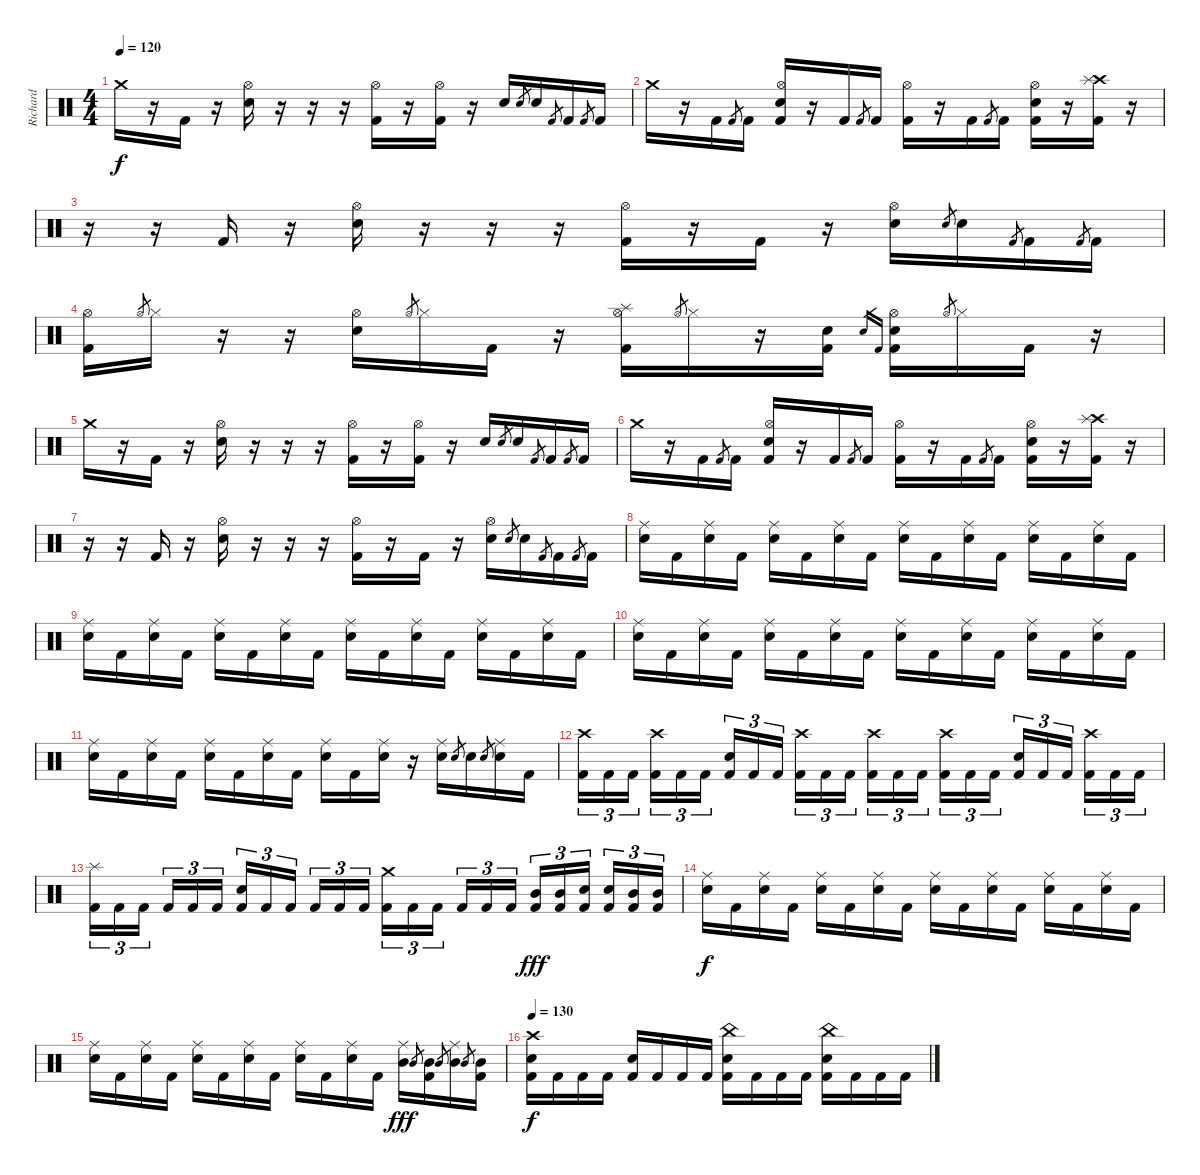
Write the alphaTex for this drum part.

\track ("Richard " "Richard ") {instrument percussion}
\staff {score}
\articulation defaults
\ts (4 4)
\tempo 120
\clef neutral
\ks c "Crash medium (hit)".16{dy f}
r.16 "Kick (hit) 2".16 r.16 ("Hi-Hat (open)" "Snare (hit) 2").16 r.16 r.16 r.16 ("Hi-Hat (open)" "Kick (hit) 2").16 r.16 ("Hi-Hat (open)" "Kick (hit) 2").16 r.16 "Snare (hit) 2".16 "Snare (hit) 2".8{gr} "Snare (hit) 2".16 "Kick (hit) 2".8{gr} "Kick (hit) 2".16 "Kick (hit) 2".8{gr} "Kick (hit) 2".16 |
"Crash medium (hit)".16 r.16 "Kick (hit) 2".16 "Kick (hit) 2".8{gr} "Kick (hit) 2".16 ("Hi-Hat (open)" "Snare (hit) 2" "Kick (hit) 2").16 r.16 "Kick (hit) 2".16 "Kick (hit) 2".8{gr} "Kick (hit) 2".16 ("Hi-Hat (open)" "Kick (hit) 2").16 r.16 "Kick (hit) 2".16 "Kick (hit) 2".8{gr} "Kick (hit) 2".16 ("Hi-Hat (open)" "Snare (hit) 2" "Kick (hit) 2").16 r.16 ("Crash high (hit)" "Splash (hit)" "Kick (hit) 2").16 r.16 |
r.16 r.16 "Kick (hit) 2".16 r.16 ("Hi-Hat (open)" "Snare (hit) 2").16 r.16 r.16 r.16 ("Hi-Hat (open)" "Kick (hit) 2").16 r.16 "Kick (hit) 2".16 r.16 ("Hi-Hat (open)" "Snare (hit) 2").16 "Snare (hit) 2".8{gr} "Snare (hit) 2".16 "Kick (hit) 2".8{gr} "Kick (hit) 2".16 "Kick (hit) 2".8{gr} "Kick (hit) 2".16 |
("Hi-Hat (open)" "Kick (hit) 2").16 "Hi-Hat (open)".8{gr} "Hi-Hat (closed)".16 r.16 r.16 ("Hi-Hat (open)" "Snare (hit) 2").16 "Hi-Hat (open)".8{gr} "Hi-Hat (closed)".16 "Kick (hit) 2".16 r.16 ("Hi-Hat (open)" "Splash (hit)" "Kick (hit) 2").16 "Hi-Hat (open)".8{gr} "Hi-Hat (closed)".16 r.16 ("Snare (hit) 2" "Kick (hit) 2").16 "Snare (hit) 2".16{gr} "Kick (hit) 2".16{gr} ("Hi-Hat (open)" "Snare (hit) 2" "Kick (hit) 2").16 "Hi-Hat (open)".8{gr} "Hi-Hat (closed)".16 "Kick (hit) 2".16 r.16 |
"Crash medium (hit)".16 r.16 "Kick (hit) 2".16 r.16 ("Hi-Hat (open)" "Snare (hit) 2").16 r.16 r.16 r.16 ("Hi-Hat (open)" "Kick (hit) 2").16 r.16 ("Hi-Hat (open)" "Kick (hit) 2").16 r.16 "Snare (hit) 2".16 "Snare (hit) 2".8{gr} "Snare (hit) 2".16 "Kick (hit) 2".8{gr} "Kick (hit) 2".16 "Kick (hit) 2".8{gr} "Kick (hit) 2".16 |
"Crash medium (hit)".16 r.16 "Kick (hit) 2".16 "Kick (hit) 2".8{gr} "Kick (hit) 2".16 ("Hi-Hat (open)" "Snare (hit) 2" "Kick (hit) 2").16 r.16 "Kick (hit) 2".16 "Kick (hit) 2".8{gr} "Kick (hit) 2".16 ("Hi-Hat (open)" "Kick (hit) 2").16 r.16 "Kick (hit) 2".16 "Kick (hit) 2".8{gr} "Kick (hit) 2".16 ("Hi-Hat (open)" "Snare (hit) 2" "Kick (hit) 2").16 r.16 ("Crash high (hit)" "Splash (hit)" "Kick (hit) 2").16 r.16 |
r.16 r.16 "Kick (hit) 2".16 r.16 ("Hi-Hat (open)" "Snare (hit) 2").16 r.16 r.16 r.16 ("Hi-Hat (open)" "Kick (hit) 2").16 r.16 "Kick (hit) 2".16 r.16 ("Hi-Hat (open)" "Snare (hit) 2").16 "Snare (hit) 2".8{gr} "Snare (hit) 2".16 "Kick (hit) 2".8{gr} "Kick (hit) 2".16 "Kick (hit) 2".8{gr} "Kick (hit) 2".16 |
("Ride (middle)" "Snare (hit) 2").16 "Kick (hit) 2".16 ("Ride (middle)" "Snare (hit) 2").16 "Kick (hit) 2".16 ("Ride (middle)" "Snare (hit) 2").16 "Kick (hit) 2".16 ("Ride (middle)" "Snare (hit) 2").16 "Kick (hit) 2".16 ("Ride (middle)" "Snare (hit) 2").16 "Kick (hit) 2".16 ("Ride (middle)" "Snare (hit) 2").16 "Kick (hit) 2".16 ("Ride (middle)" "Snare (hit) 2").16 "Kick (hit) 2".16 ("Ride (middle)" "Snare (hit) 2").16 "Kick (hit) 2".16 |
("Ride (middle)" "Snare (hit) 2").16 "Kick (hit) 2".16 ("Ride (middle)" "Snare (hit) 2").16 "Kick (hit) 2".16 ("Ride (middle)" "Snare (hit) 2").16 "Kick (hit) 2".16 ("Ride (middle)" "Snare (hit) 2").16 "Kick (hit) 2".16 ("Ride (middle)" "Snare (hit) 2").16 "Kick (hit) 2".16 ("Ride (middle)" "Snare (hit) 2").16 "Kick (hit) 2".16 ("Ride (middle)" "Snare (hit) 2").16 "Kick (hit) 2".16 ("Ride (middle)" "Snare (hit) 2").16 "Kick (hit) 2".16 |
("Ride (middle)" "Snare (hit) 2").16 "Kick (hit) 2".16 ("Ride (middle)" "Snare (hit) 2").16 "Kick (hit) 2".16 ("Ride (middle)" "Snare (hit) 2").16 "Kick (hit) 2".16 ("Ride (middle)" "Snare (hit) 2").16 "Kick (hit) 2".16 ("Ride (middle)" "Snare (hit) 2").16 "Kick (hit) 2".16 ("Ride (middle)" "Snare (hit) 2").16 "Kick (hit) 2".16 ("Ride (middle)" "Snare (hit) 2").16 "Kick (hit) 2".16 ("Ride (middle)" "Snare (hit) 2").16 "Kick (hit) 2".16 |
("Ride (middle)" "Snare (hit) 2").16 "Kick (hit) 2".16 ("Ride (middle)" "Snare (hit) 2").16 "Kick (hit) 2".16 ("Ride (middle)" "Snare (hit) 2").16 "Kick (hit) 2".16 ("Ride (middle)" "Snare (hit) 2").16 "Kick (hit) 2".16 ("Ride (middle)" "Snare (hit) 2").16 "Kick (hit) 2".16 ("Ride (middle)" "Snare (hit) 2").16 r.16 ("Ride (middle)" "Snare (hit) 2").16 "Snare (hit) 2".8{gr} "Snare (hit) 2".16 "Snare (hit) 2".8{gr} ("Ride (middle)" "Snare (hit) 2").16 "Kick (hit) 2".16 |
("Crash high (hit)" "Kick (hit) 2").16{tu (3 2)} "Kick (hit) 2".16{tu (3 2)} "Kick (hit) 2".16{tu (3 2)} ("Crash high (hit)" "Kick (hit) 2").16{tu (3 2)} "Kick (hit) 2".16{tu (3 2)} "Kick (hit) 2".16{tu (3 2)} ("Snare (hit) 2" "Kick (hit) 2").16{tu (3 2)} "Kick (hit) 2".16{tu (3 2)} "Kick (hit) 2".16{tu (3 2)} ("Crash high (hit)" "Kick (hit) 2").16{tu (3 2)} "Kick (hit) 2".16{tu (3 2)} "Kick (hit) 2".16{tu (3 2)} ("Crash high (hit)" "Kick (hit) 2").16{tu (3 2)} "Kick (hit) 2".16{tu (3 2)} "Kick (hit) 2".16{tu (3 2)} ("Crash high (hit)" "Kick (hit) 2").16{tu (3 2)} "Kick (hit) 2".16{tu (3 2)} "Kick (hit) 2".16{tu (3 2)} ("Snare (hit) 2" "Kick (hit) 2").16{tu (3 2)} "Kick (hit) 2".16{tu (3 2)} "Kick (hit) 2".16{tu (3 2)} ("Crash high (hit)" "Kick (hit) 2").16{tu (3 2)} "Kick (hit) 2".16{tu (3 2)} "Kick (hit) 2".16{tu (3 2)} |
("Splash (hit)" "Kick (hit) 2").16{tu (3 2)} "Kick (hit) 2".16{tu (3 2)} "Kick (hit) 2".16{tu (3 2)} "Kick (hit) 2".16{tu (3 2)} "Kick (hit) 2".16{tu (3 2)} "Kick (hit) 2".16{tu (3 2)} ("Snare (hit) 2" "Kick (hit) 2").16{tu (3 2)} "Kick (hit) 2".16{tu (3 2)} "Kick (hit) 2".16{tu (3 2)} "Kick (hit) 2".16{tu (3 2)} "Kick (hit) 2".16{tu (3 2)} "Kick (hit) 2".16{tu (3 2)} ("Crash medium (hit)" "Kick (hit) 2").16{tu (3 2)} "Kick (hit) 2".16{tu (3 2)} "Kick (hit) 2".16{tu (3 2)} "Kick (hit) 2".16{tu (3 2)} "Kick (hit) 2".16{tu (3 2)} "Kick (hit) 2".16{tu (3 2)} ("Mid Tom (hit)" "Kick (hit) 2").16{tu (3 2) dy fff} ("Mid Tom (hit)" "Kick (hit) 2").16{tu (3 2)} ("Snare (hit) 2" "Kick (hit) 2").16{tu (3 2)} ("Snare (hit) 2" "Kick (hit) 2").16{tu (3 2)} ("Mid Tom (hit)" "Kick (hit) 2").16{tu (3 2)} ("Mid Tom (hit)" "Kick (hit) 2").16{tu (3 2)} |
("Ride (middle)" "Snare (hit) 2").16{dy f} "Kick (hit) 2".16 ("Ride (middle)" "Snare (hit) 2").16 "Kick (hit) 2".16 ("Ride (middle)" "Snare (hit) 2").16 "Kick (hit) 2".16 ("Ride (middle)" "Snare (hit) 2").16 "Kick (hit) 2".16 ("Ride (middle)" "Snare (hit) 2").16 "Kick (hit) 2".16 ("Ride (middle)" "Snare (hit) 2").16 "Kick (hit) 2".16 ("Ride (middle)" "Snare (hit) 2").16 "Kick (hit) 2".16 ("Ride (middle)" "Snare (hit) 2").16 "Kick (hit) 2".16 |
("Ride (middle)" "Snare (hit) 2").16 "Kick (hit) 2".16 ("Ride (middle)" "Snare (hit) 2").16 "Kick (hit) 2".16 ("Ride (middle)" "Snare (hit) 2").16 "Kick (hit) 2".16 ("Ride (middle)" "Snare (hit) 2").16 "Kick (hit) 2".16 ("Ride (middle)" "Snare (hit) 2").16 "Kick (hit) 2".16 ("Ride (middle)" "Snare (hit) 2").16 "Kick (hit) 2".16 ("Ride (middle)" "Mid Tom (hit)").16{dy fff} "Mid Tom (hit)".8{gr} ("Mid Tom (hit)" "Kick (hit) 2").16 "Mid Tom (hit)".8{gr} ("Ride (middle)" "Mid Tom (hit)").16 "Mid Tom (hit)".8{gr} ("Mid Tom (hit)" "Kick (hit) 2").16 |
\tempo 130
("Crash high (hit)" "Snare (hit) 2" "Kick (hit) 2").16{dy f} "Kick (hit) 2".16 "Kick (hit) 2".16 "Kick (hit) 2".16 ("Snare (hit) 2" "Kick (hit) 2").16 "Kick (hit) 2".16 "Kick (hit) 2".16 "Kick (hit) 2".16 ("China (hit)" "Snare (hit) 2" "Kick (hit) 2").16 "Kick (hit) 2".16 "Kick (hit) 2".16 "Kick (hit) 2".16 ("China (hit)" "Snare (hit) 2" "Kick (hit) 2").16 "Kick (hit) 2".16 "Kick (hit) 2".16 "Kick (hit) 2".16
